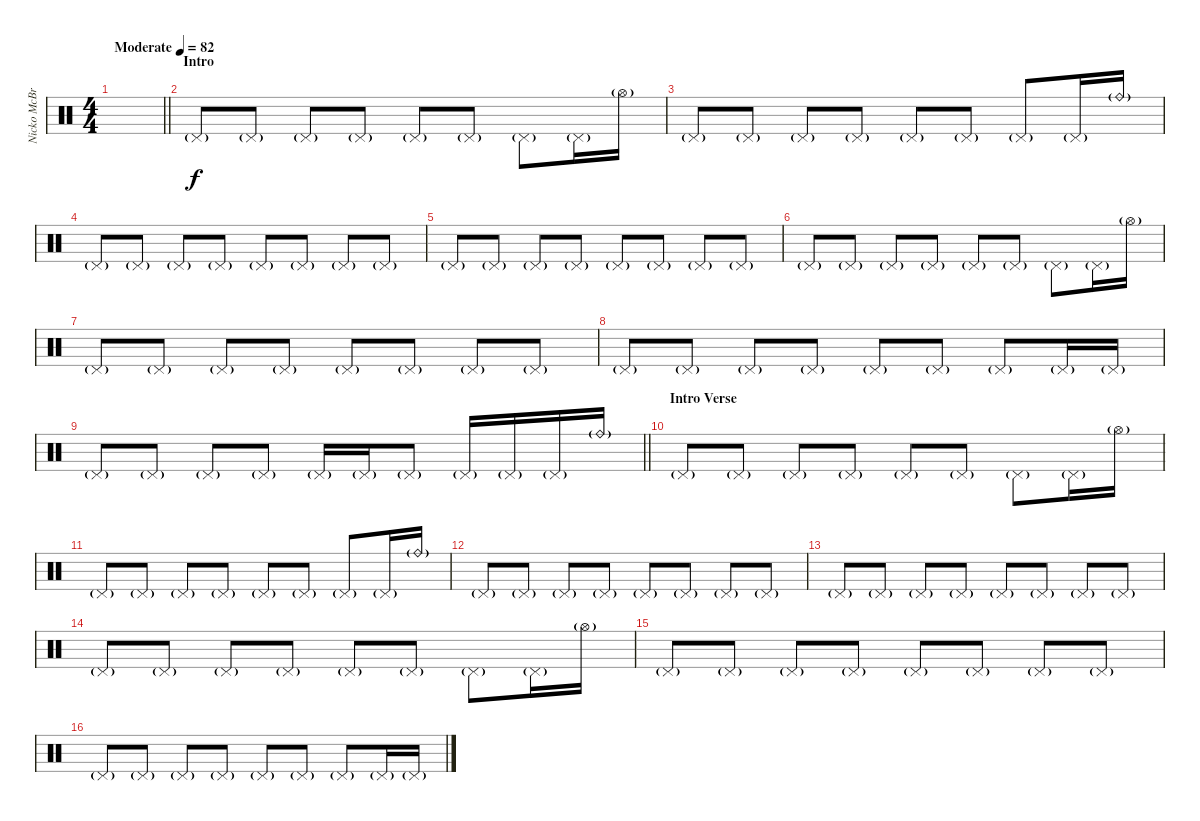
\track ("Nicko McBrain" "Nicko McBr") {instrument percussion}
\staff {score}
\articulation defaults
\ts (4 4)
\tempo (82 "Moderate")
\clef neutral
\barLineRight lightlight
\ks c
|
\section ("" "Intro")
"Pedal Hi-Hat (hit)"{g}.8{volume 4} "Pedal Hi-Hat (hit)"{g}.8 "Pedal Hi-Hat (hit)"{g}.8 "Pedal Hi-Hat (hit)"{g}.8 "Pedal Hi-Hat (hit)"{g}.8 "Pedal Hi-Hat (hit)"{g}.8 "Pedal Hi-Hat (hit)"{g}.8 "Pedal Hi-Hat (hit)"{g}.16 "Hi-Hat (open)"{g}.16 |
"Pedal Hi-Hat (hit)"{g}.8 "Pedal Hi-Hat (hit)"{g}.8 "Pedal Hi-Hat (hit)"{g}.8 "Pedal Hi-Hat (hit)"{g}.8 "Pedal Hi-Hat (hit)"{g}.8 "Pedal Hi-Hat (hit)"{g}.8 "Pedal Hi-Hat (hit)"{g}.8 "Pedal Hi-Hat (hit)"{g}.16 "Ride (bell)"{g}.16 |
"Pedal Hi-Hat (hit)"{g}.8 "Pedal Hi-Hat (hit)"{g}.8 "Pedal Hi-Hat (hit)"{g}.8 "Pedal Hi-Hat (hit)"{g}.8 "Pedal Hi-Hat (hit)"{g}.8 "Pedal Hi-Hat (hit)"{g}.8 "Pedal Hi-Hat (hit)"{g}.8 "Pedal Hi-Hat (hit)"{g}.8 |
"Pedal Hi-Hat (hit)"{g}.8 "Pedal Hi-Hat (hit)"{g}.8 "Pedal Hi-Hat (hit)"{g}.8 "Pedal Hi-Hat (hit)"{g}.8 "Pedal Hi-Hat (hit)"{g}.8 "Pedal Hi-Hat (hit)"{g}.8 "Pedal Hi-Hat (hit)"{g}.8 "Pedal Hi-Hat (hit)"{g}.8 |
"Pedal Hi-Hat (hit)"{g}.8 "Pedal Hi-Hat (hit)"{g}.8 "Pedal Hi-Hat (hit)"{g}.8 "Pedal Hi-Hat (hit)"{g}.8 "Pedal Hi-Hat (hit)"{g}.8 "Pedal Hi-Hat (hit)"{g}.8 "Pedal Hi-Hat (hit)"{g}.8 "Pedal Hi-Hat (hit)"{g}.16 "Hi-Hat (open)"{g}.16 |
"Pedal Hi-Hat (hit)"{g}.8 "Pedal Hi-Hat (hit)"{g}.8 "Pedal Hi-Hat (hit)"{g}.8 "Pedal Hi-Hat (hit)"{g}.8 "Pedal Hi-Hat (hit)"{g}.8 "Pedal Hi-Hat (hit)"{g}.8 "Pedal Hi-Hat (hit)"{g}.8 "Pedal Hi-Hat (hit)"{g}.8 |
"Pedal Hi-Hat (hit)"{g}.8 "Pedal Hi-Hat (hit)"{g}.8 "Pedal Hi-Hat (hit)"{g}.8 "Pedal Hi-Hat (hit)"{g}.8 "Pedal Hi-Hat (hit)"{g}.8 "Pedal Hi-Hat (hit)"{g}.8 "Pedal Hi-Hat (hit)"{g}.8 "Pedal Hi-Hat (hit)"{g}.16 "Pedal Hi-Hat (hit)"{g}.16 |
\barLineRight lightlight "Pedal Hi-Hat (hit)"{g}.8 "Pedal Hi-Hat (hit)"{g}.8 "Pedal Hi-Hat (hit)"{g}.8 "Pedal Hi-Hat (hit)"{g}.8 "Pedal Hi-Hat (hit)"{g}.16 "Pedal Hi-Hat (hit)"{g}.16 "Pedal Hi-Hat (hit)"{g}.8 "Pedal Hi-Hat (hit)"{g}.16 "Pedal Hi-Hat (hit)"{g}.16 "Pedal Hi-Hat (hit)"{g}.16 "Ride (bell)"{g}.16
|
\section ("" "Intro Verse")
"Pedal Hi-Hat (hit)"{g}.8 "Pedal Hi-Hat (hit)"{g}.8 "Pedal Hi-Hat (hit)"{g}.8 "Pedal Hi-Hat (hit)"{g}.8 "Pedal Hi-Hat (hit)"{g}.8 "Pedal Hi-Hat (hit)"{g}.8 "Pedal Hi-Hat (hit)"{g}.8 "Pedal Hi-Hat (hit)"{g}.16 "Hi-Hat (open)"{g}.16 |
"Pedal Hi-Hat (hit)"{g}.8 "Pedal Hi-Hat (hit)"{g}.8 "Pedal Hi-Hat (hit)"{g}.8 "Pedal Hi-Hat (hit)"{g}.8 "Pedal Hi-Hat (hit)"{g}.8 "Pedal Hi-Hat (hit)"{g}.8 "Pedal Hi-Hat (hit)"{g}.8 "Pedal Hi-Hat (hit)"{g}.16 "Ride (bell)"{g}.16 |
"Pedal Hi-Hat (hit)"{g}.8 "Pedal Hi-Hat (hit)"{g}.8 "Pedal Hi-Hat (hit)"{g}.8 "Pedal Hi-Hat (hit)"{g}.8 "Pedal Hi-Hat (hit)"{g}.8 "Pedal Hi-Hat (hit)"{g}.8 "Pedal Hi-Hat (hit)"{g}.8 "Pedal Hi-Hat (hit)"{g}.8 |
"Pedal Hi-Hat (hit)"{g}.8 "Pedal Hi-Hat (hit)"{g}.8 "Pedal Hi-Hat (hit)"{g}.8 "Pedal Hi-Hat (hit)"{g}.8 "Pedal Hi-Hat (hit)"{g}.8 "Pedal Hi-Hat (hit)"{g}.8 "Pedal Hi-Hat (hit)"{g}.8 "Pedal Hi-Hat (hit)"{g}.8 |
"Pedal Hi-Hat (hit)"{g}.8 "Pedal Hi-Hat (hit)"{g}.8 "Pedal Hi-Hat (hit)"{g}.8 "Pedal Hi-Hat (hit)"{g}.8 "Pedal Hi-Hat (hit)"{g}.8 "Pedal Hi-Hat (hit)"{g}.8 "Pedal Hi-Hat (hit)"{g}.8 "Pedal Hi-Hat (hit)"{g}.16 "Hi-Hat (open)"{g}.16 |
"Pedal Hi-Hat (hit)"{g}.8 "Pedal Hi-Hat (hit)"{g}.8 "Pedal Hi-Hat (hit)"{g}.8 "Pedal Hi-Hat (hit)"{g}.8 "Pedal Hi-Hat (hit)"{g}.8 "Pedal Hi-Hat (hit)"{g}.8 "Pedal Hi-Hat (hit)"{g}.8 "Pedal Hi-Hat (hit)"{g}.8 |
"Pedal Hi-Hat (hit)"{g}.8 "Pedal Hi-Hat (hit)"{g}.8 "Pedal Hi-Hat (hit)"{g}.8 "Pedal Hi-Hat (hit)"{g}.8 "Pedal Hi-Hat (hit)"{g}.8 "Pedal Hi-Hat (hit)"{g}.8 "Pedal Hi-Hat (hit)"{g}.8 "Pedal Hi-Hat (hit)"{g}.16 "Pedal Hi-Hat (hit)"{g}.16
